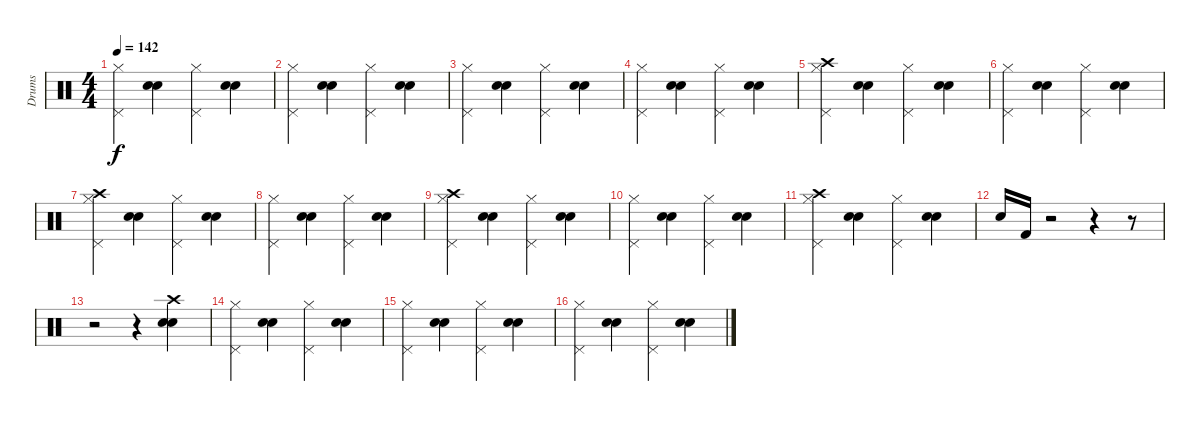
\track ("Drums" "Drums") {instrument percussion}
\staff {score}
\articulation defaults
\ts (4 4)
\tempo 142
\clef neutral
\ks c
("Hi-Hat (closed)" "Pedal Hi-Hat (hit)").4{dy f} ("Snare (hit) 2" "Electric Snare (hit)").4 ("Hi-Hat (closed)" "Pedal Hi-Hat (hit)").4 ("Snare (hit) 2" "Electric Snare (hit)").4 |
("Hi-Hat (closed)" "Pedal Hi-Hat (hit)").4 ("Snare (hit) 2" "Electric Snare (hit)").4 ("Hi-Hat (closed)" "Pedal Hi-Hat (hit)").4 ("Snare (hit) 2" "Electric Snare (hit)").4 |
("Hi-Hat (closed)" "Pedal Hi-Hat (hit)").4 ("Snare (hit) 2" "Electric Snare (hit)").4 ("Hi-Hat (closed)" "Pedal Hi-Hat (hit)").4 ("Snare (hit) 2" "Electric Snare (hit)").4 |
("Hi-Hat (closed)" "Pedal Hi-Hat (hit)").4 ("Snare (hit) 2" "Electric Snare (hit)").4 ("Hi-Hat (closed)" "Pedal Hi-Hat (hit)").4 ("Snare (hit) 2" "Electric Snare (hit)").4 |
("Crash high (hit)" "Hi-Hat (closed)" "Pedal Hi-Hat (hit)").4 ("Snare (hit) 2" "Electric Snare (hit)").4 ("Hi-Hat (closed)" "Pedal Hi-Hat (hit)").4 ("Snare (hit) 2" "Electric Snare (hit)").4 |
("Hi-Hat (closed)" "Pedal Hi-Hat (hit)").4 ("Snare (hit) 2" "Electric Snare (hit)").4 ("Hi-Hat (closed)" "Pedal Hi-Hat (hit)").4 ("Snare (hit) 2" "Electric Snare (hit)").4 |
("Crash high (hit)" "Hi-Hat (closed)" "Pedal Hi-Hat (hit)").4 ("Snare (hit) 2" "Electric Snare (hit)").4 ("Hi-Hat (closed)" "Pedal Hi-Hat (hit)").4 ("Snare (hit) 2" "Electric Snare (hit)").4 |
("Hi-Hat (closed)" "Pedal Hi-Hat (hit)").4 ("Snare (hit) 2" "Electric Snare (hit)").4 ("Hi-Hat (closed)" "Pedal Hi-Hat (hit)").4 ("Snare (hit) 2" "Electric Snare (hit)").4 |
("Crash high (hit)" "Hi-Hat (closed)" "Pedal Hi-Hat (hit)").4 ("Snare (hit) 2" "Electric Snare (hit)").4 ("Hi-Hat (closed)" "Pedal Hi-Hat (hit)").4 ("Snare (hit) 2" "Electric Snare (hit)").4 |
("Hi-Hat (closed)" "Pedal Hi-Hat (hit)").4 ("Snare (hit) 2" "Electric Snare (hit)").4 ("Hi-Hat (closed)" "Pedal Hi-Hat (hit)").4 ("Snare (hit) 2" "Electric Snare (hit)").4 |
("Crash high (hit)" "Hi-Hat (closed)" "Pedal Hi-Hat (hit)").4 ("Snare (hit) 2" "Electric Snare (hit)").4 ("Hi-Hat (closed)" "Pedal Hi-Hat (hit)").4 ("Snare (hit) 2" "Electric Snare (hit)").4 |
"Snare (hit) 2".16 "Kick (hit) 2".16 r.2 r.4 r.8 |
r.2 r.4 ("Crash high (hit)" "Snare (hit) 2" "Electric Snare (hit)").4 |
("Hi-Hat (closed)" "Pedal Hi-Hat (hit)").4 ("Snare (hit) 2" "Electric Snare (hit)").4 ("Hi-Hat (closed)" "Pedal Hi-Hat (hit)").4 ("Snare (hit) 2" "Electric Snare (hit)").4 |
("Hi-Hat (closed)" "Pedal Hi-Hat (hit)").4 ("Snare (hit) 2" "Electric Snare (hit)").4 ("Hi-Hat (closed)" "Pedal Hi-Hat (hit)").4 ("Snare (hit) 2" "Electric Snare (hit)").4 |
("Hi-Hat (closed)" "Pedal Hi-Hat (hit)").4 ("Snare (hit) 2" "Electric Snare (hit)").4 ("Hi-Hat (closed)" "Pedal Hi-Hat (hit)").4 ("Snare (hit) 2" "Electric Snare (hit)").4
